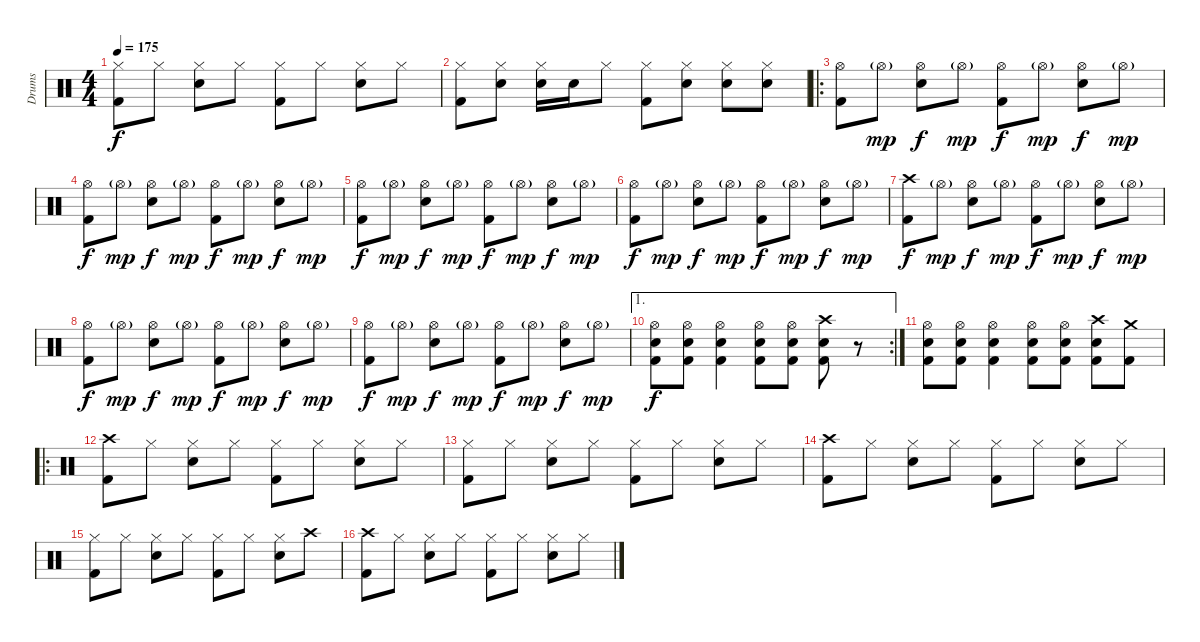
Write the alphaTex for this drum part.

\track ("Drums" "Drums") {instrument percussion}
\staff {score}
\articulation defaults
\ts (4 4)
\tempo 175
\clef neutral
\ks c
("Hi-Hat (closed)" "Kick (hit) 2").8{dy f} "Hi-Hat (closed)".8 ("Hi-Hat (closed)" "Snare (hit) 2").8 "Hi-Hat (closed)".8 ("Hi-Hat (closed)" "Kick (hit) 2").8 "Hi-Hat (closed)".8 ("Hi-Hat (closed)" "Snare (hit) 2").8 "Hi-Hat (closed)".8 |
("Hi-Hat (closed)" "Kick (hit) 2").8 ("Hi-Hat (closed)" "Snare (hit) 2").8 ("Hi-Hat (closed)" "Snare (hit) 2").16 "Snare (hit) 2".16 "Hi-Hat (closed)".8 ("Hi-Hat (closed)" "Kick (hit) 2").8 ("Hi-Hat (closed)" "Snare (hit) 2").8 ("Hi-Hat (closed)" "Snare (hit) 2").8 ("Hi-Hat (closed)" "Snare (hit) 2").8 |
\ro
("Hi-Hat (open)" "Kick (hit) 2").8 "Hi-Hat (open)"{g}.8{dy mp} ("Hi-Hat (open)" "Snare (hit) 2").8{dy f} "Hi-Hat (open)"{g}.8{dy mp} ("Hi-Hat (open)" "Kick (hit) 2").8{dy f} "Hi-Hat (open)"{g}.8{dy mp} ("Hi-Hat (open)" "Snare (hit) 2").8{dy f} "Hi-Hat (open)"{g}.8{dy mp} |
("Hi-Hat (open)" "Kick (hit) 2").8{dy f} "Hi-Hat (open)"{g}.8{dy mp} ("Hi-Hat (open)" "Snare (hit) 2").8{dy f} "Hi-Hat (open)"{g}.8{dy mp} ("Hi-Hat (open)" "Kick (hit) 2").8{dy f} "Hi-Hat (open)"{g}.8{dy mp} ("Hi-Hat (open)" "Snare (hit) 2").8{dy f} "Hi-Hat (open)"{g}.8{dy mp} |
("Hi-Hat (open)" "Kick (hit) 2").8{dy f} "Hi-Hat (open)"{g}.8{dy mp} ("Hi-Hat (open)" "Snare (hit) 2").8{dy f} "Hi-Hat (open)"{g}.8{dy mp} ("Hi-Hat (open)" "Kick (hit) 2").8{dy f} "Hi-Hat (open)"{g}.8{dy mp} ("Hi-Hat (open)" "Snare (hit) 2").8{dy f} "Hi-Hat (open)"{g}.8{dy mp} |
("Hi-Hat (open)" "Kick (hit) 2").8{dy f} "Hi-Hat (open)"{g}.8{dy mp} ("Hi-Hat (open)" "Snare (hit) 2").8{dy f} "Hi-Hat (open)"{g}.8{dy mp} ("Hi-Hat (open)" "Kick (hit) 2").8{dy f} "Hi-Hat (open)"{g}.8{dy mp} ("Hi-Hat (open)" "Snare (hit) 2").8{dy f} "Hi-Hat (open)"{g}.8{dy mp} |
("Crash high (hit)" "Kick (hit) 2").8{dy f} "Hi-Hat (open)"{g}.8{dy mp} ("Hi-Hat (open)" "Snare (hit) 2").8{dy f} "Hi-Hat (open)"{g}.8{dy mp} ("Hi-Hat (open)" "Kick (hit) 2").8{dy f} "Hi-Hat (open)"{g}.8{dy mp} ("Hi-Hat (open)" "Snare (hit) 2").8{dy f} "Hi-Hat (open)"{g}.8{dy mp} |
("Hi-Hat (open)" "Kick (hit) 2").8{dy f} "Hi-Hat (open)"{g}.8{dy mp} ("Hi-Hat (open)" "Snare (hit) 2").8{dy f} "Hi-Hat (open)"{g}.8{dy mp} ("Hi-Hat (open)" "Kick (hit) 2").8{dy f} "Hi-Hat (open)"{g}.8{dy mp} ("Hi-Hat (open)" "Snare (hit) 2").8{dy f} "Hi-Hat (open)"{g}.8{dy mp} |
("Hi-Hat (open)" "Kick (hit) 2").8{dy f} "Hi-Hat (open)"{g}.8{dy mp} ("Hi-Hat (open)" "Snare (hit) 2").8{dy f} "Hi-Hat (open)"{g}.8{dy mp} ("Hi-Hat (open)" "Kick (hit) 2").8{dy f} "Hi-Hat (open)"{g}.8{dy mp} ("Hi-Hat (open)" "Snare (hit) 2").8{dy f} "Hi-Hat (open)"{g}.8{dy mp} |
\ae 1
\rc 2
("Hi-Hat (open)" "Snare (hit) 2" "Kick (hit) 2").8{dy f} ("Hi-Hat (open)" "Snare (hit) 2" "Kick (hit) 2").8 ("Hi-Hat (open)" "Snare (hit) 2" "Kick (hit) 2").4 ("Hi-Hat (open)" "Snare (hit) 2" "Kick (hit) 2").8 ("Hi-Hat (open)" "Snare (hit) 2" "Kick (hit) 2").8 ("Crash high (hit)" "Snare (hit) 2" "Kick (hit) 2").8 r.8 |
("Hi-Hat (open)" "Snare (hit) 2" "Kick (hit) 2").8 ("Hi-Hat (open)" "Snare (hit) 2" "Kick (hit) 2").8 ("Hi-Hat (open)" "Snare (hit) 2" "Kick (hit) 2").4 ("Hi-Hat (open)" "Snare (hit) 2" "Kick (hit) 2").8 ("Hi-Hat (open)" "Snare (hit) 2" "Kick (hit) 2").8 ("Crash high (hit)" "Snare (hit) 2" "Kick (hit) 2").8 ("Crash medium (hit)" "Kick (hit) 2").8 |
\ro
("Crash high (hit)" "Kick (hit) 2").8 "Hi-Hat (closed)".8 ("Hi-Hat (closed)" "Snare (hit) 2").8 "Hi-Hat (closed)".8 ("Hi-Hat (closed)" "Kick (hit) 2").8 "Hi-Hat (closed)".8 ("Hi-Hat (closed)" "Snare (hit) 2").8 "Hi-Hat (closed)".8 |
("Hi-Hat (closed)" "Kick (hit) 2").8 "Hi-Hat (closed)".8 ("Hi-Hat (closed)" "Snare (hit) 2").8 "Hi-Hat (closed)".8 ("Hi-Hat (closed)" "Kick (hit) 2").8 "Hi-Hat (closed)".8 ("Hi-Hat (closed)" "Snare (hit) 2").8 "Hi-Hat (closed)".8 |
("Crash high (hit)" "Kick (hit) 2").8 "Hi-Hat (closed)".8 ("Hi-Hat (closed)" "Snare (hit) 2").8 "Hi-Hat (closed)".8 ("Hi-Hat (closed)" "Kick (hit) 2").8 "Hi-Hat (closed)".8 ("Hi-Hat (closed)" "Snare (hit) 2").8 "Hi-Hat (closed)".8 |
("Hi-Hat (closed)" "Kick (hit) 2").8 "Hi-Hat (closed)".8 ("Hi-Hat (closed)" "Snare (hit) 2").8 "Hi-Hat (closed)".8 ("Hi-Hat (closed)" "Kick (hit) 2").8 "Hi-Hat (closed)".8 ("Hi-Hat (closed)" "Snare (hit) 2").8 "Crash high (hit)".8 |
("Crash high (hit)" "Kick (hit) 2").8 "Hi-Hat (closed)".8 ("Hi-Hat (closed)" "Snare (hit) 2").8 "Hi-Hat (closed)".8 ("Hi-Hat (closed)" "Kick (hit) 2").8 "Hi-Hat (closed)".8 ("Hi-Hat (closed)" "Snare (hit) 2").8 "Hi-Hat (closed)".8
